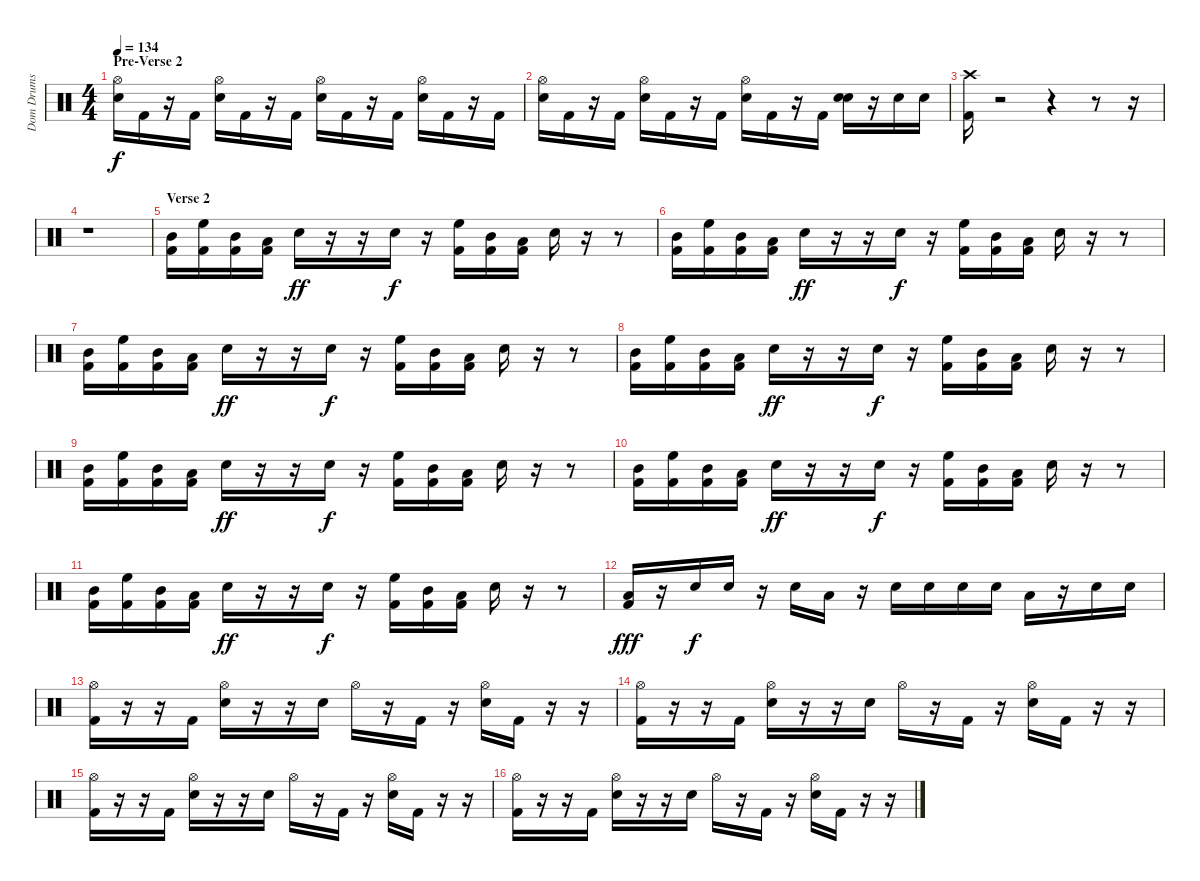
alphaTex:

\track ("Dom Drums" "Dom Drums") {instrument percussion}
\staff {score}
\articulation defaults
\ts (4 4)
\section ("" "Pre-Verse 2")
\tempo 134
\clef neutral
\ks c
("Hi-Hat (open)" "Electric Snare (hit)").16{dy f} "Kick (hit) 2".16 r.16 "Kick (hit) 2".16 ("Hi-Hat (open)" "Electric Snare (hit)").16 "Kick (hit) 2".16 r.16 "Kick (hit) 2".16 ("Hi-Hat (open)" "Electric Snare (hit)").16 "Kick (hit) 2".16 r.16 "Kick (hit) 2".16 ("Hi-Hat (open)" "Electric Snare (hit)").16 "Kick (hit) 2".16 r.16 "Kick (hit) 2".16 |
("Hi-Hat (open)" "Electric Snare (hit)").16 "Kick (hit) 2".16 r.16 "Kick (hit) 2".16 ("Hi-Hat (open)" "Electric Snare (hit)").16 "Kick (hit) 2".16 r.16 "Kick (hit) 2".16 ("Hi-Hat (open)" "Electric Snare (hit)").16 "Kick (hit) 2".16 r.16 "Kick (hit) 2".16 ("Electric Snare (hit)" "Electric Snare (hit)").16 r.16 "Electric Snare (hit)".16 "Electric Snare (hit)".16 |
("Crash high (hit)" "Kick (hit) 2").16 r.2 r.4 r.8 r.16 |
r.1 |
\section ("" "Verse 2")
("Mid Tom (hit)" "Kick (hit) 2").16 ("High Floor Tom (hit)" "Kick (hit) 2").16 ("Mid Tom (hit)" "Kick (hit) 2").16 ("Low Tom (hit)" "Kick (hit) 2").16 "Electric Snare (hit)".16{dy ff} r.16 r.16 "Electric Snare (hit)".16{dy f} r.16 ("High Floor Tom (hit)" "Kick (hit) 2").16 ("Mid Tom (hit)" "Kick (hit) 2").16 ("Low Tom (hit)" "Kick (hit) 2").16 "Electric Snare (hit)".16 r.16 r.8 |
("Mid Tom (hit)" "Kick (hit) 2").16 ("High Floor Tom (hit)" "Kick (hit) 2").16 ("Mid Tom (hit)" "Kick (hit) 2").16 ("Low Tom (hit)" "Kick (hit) 2").16 "Electric Snare (hit)".16{dy ff} r.16 r.16 "Electric Snare (hit)".16{dy f} r.16 ("High Floor Tom (hit)" "Kick (hit) 2").16 ("Mid Tom (hit)" "Kick (hit) 2").16 ("Low Tom (hit)" "Kick (hit) 2").16 "Electric Snare (hit)".16 r.16 r.8 |
("Mid Tom (hit)" "Kick (hit) 2").16 ("High Floor Tom (hit)" "Kick (hit) 2").16 ("Mid Tom (hit)" "Kick (hit) 2").16 ("Low Tom (hit)" "Kick (hit) 2").16 "Electric Snare (hit)".16{dy ff} r.16 r.16 "Electric Snare (hit)".16{dy f} r.16 ("High Floor Tom (hit)" "Kick (hit) 2").16 ("Mid Tom (hit)" "Kick (hit) 2").16 ("Low Tom (hit)" "Kick (hit) 2").16 "Electric Snare (hit)".16 r.16 r.8 |
("Mid Tom (hit)" "Kick (hit) 2").16 ("High Floor Tom (hit)" "Kick (hit) 2").16 ("Mid Tom (hit)" "Kick (hit) 2").16 ("Low Tom (hit)" "Kick (hit) 2").16 "Electric Snare (hit)".16{dy ff} r.16 r.16 "Electric Snare (hit)".16{dy f} r.16 ("High Floor Tom (hit)" "Kick (hit) 2").16 ("Mid Tom (hit)" "Kick (hit) 2").16 ("Low Tom (hit)" "Kick (hit) 2").16 "Electric Snare (hit)".16 r.16 r.8 |
("Mid Tom (hit)" "Kick (hit) 2").16 ("High Floor Tom (hit)" "Kick (hit) 2").16 ("Mid Tom (hit)" "Kick (hit) 2").16 ("Low Tom (hit)" "Kick (hit) 2").16 "Electric Snare (hit)".16{dy ff} r.16 r.16 "Electric Snare (hit)".16{dy f} r.16 ("High Floor Tom (hit)" "Kick (hit) 2").16 ("Mid Tom (hit)" "Kick (hit) 2").16 ("Low Tom (hit)" "Kick (hit) 2").16 "Electric Snare (hit)".16 r.16 r.8 |
("Mid Tom (hit)" "Kick (hit) 2").16 ("High Floor Tom (hit)" "Kick (hit) 2").16 ("Mid Tom (hit)" "Kick (hit) 2").16 ("Low Tom (hit)" "Kick (hit) 2").16 "Electric Snare (hit)".16{dy ff} r.16 r.16 "Electric Snare (hit)".16{dy f} r.16 ("High Floor Tom (hit)" "Kick (hit) 2").16 ("Mid Tom (hit)" "Kick (hit) 2").16 ("Low Tom (hit)" "Kick (hit) 2").16 "Electric Snare (hit)".16 r.16 r.8 |
("Mid Tom (hit)" "Kick (hit) 2").16 ("High Floor Tom (hit)" "Kick (hit) 2").16 ("Mid Tom (hit)" "Kick (hit) 2").16 ("Low Tom (hit)" "Kick (hit) 2").16 "Electric Snare (hit)".16{dy ff} r.16 r.16 "Electric Snare (hit)".16{dy f} r.16 ("High Floor Tom (hit)" "Kick (hit) 2").16 ("Mid Tom (hit)" "Kick (hit) 2").16 ("Low Tom (hit)" "Kick (hit) 2").16 "Electric Snare (hit)".16 r.16 r.8 |
("Low Tom (hit)" "Kick (hit) 2").16{dy fff} r.16 "Electric Snare (hit)".16{dy f} "Electric Snare (hit)".16 r.16 "Electric Snare (hit)".16 "Low Tom (hit)".16 r.16 "Electric Snare (hit)".16 "Electric Snare (hit)".16 "Electric Snare (hit)".16 "Electric Snare (hit)".16 "Low Tom (hit)".16 r.16 "Electric Snare (hit)".16 "Electric Snare (hit)".16 |
("Hi-Hat (open)" "Kick (hit) 2").16 r.16 r.16 "Kick (hit) 2".16 ("Hi-Hat (open)" "Electric Snare (hit)").16 r.16 r.16 "Electric Snare (hit)".16 "Hi-Hat (open)".16 r.16 "Kick (hit) 2".16 r.16 ("Hi-Hat (open)" "Electric Snare (hit)").16 "Kick (hit) 2".16 r.16 r.16 |
("Hi-Hat (open)" "Kick (hit) 2").16 r.16 r.16 "Kick (hit) 2".16 ("Hi-Hat (open)" "Electric Snare (hit)").16 r.16 r.16 "Electric Snare (hit)".16 "Hi-Hat (open)".16 r.16 "Kick (hit) 2".16 r.16 ("Hi-Hat (open)" "Electric Snare (hit)").16 "Kick (hit) 2".16 r.16 r.16 |
("Hi-Hat (open)" "Kick (hit) 2").16 r.16 r.16 "Kick (hit) 2".16 ("Hi-Hat (open)" "Electric Snare (hit)").16 r.16 r.16 "Electric Snare (hit)".16 "Hi-Hat (open)".16 r.16 "Kick (hit) 2".16 r.16 ("Hi-Hat (open)" "Electric Snare (hit)").16 "Kick (hit) 2".16 r.16 r.16 |
("Hi-Hat (open)" "Kick (hit) 2").16 r.16 r.16 "Kick (hit) 2".16 ("Hi-Hat (open)" "Electric Snare (hit)").16 r.16 r.16 "Electric Snare (hit)".16 "Hi-Hat (open)".16 r.16 "Kick (hit) 2".16 r.16 ("Hi-Hat (open)" "Electric Snare (hit)").16 "Kick (hit) 2".16 r.16 r.16
